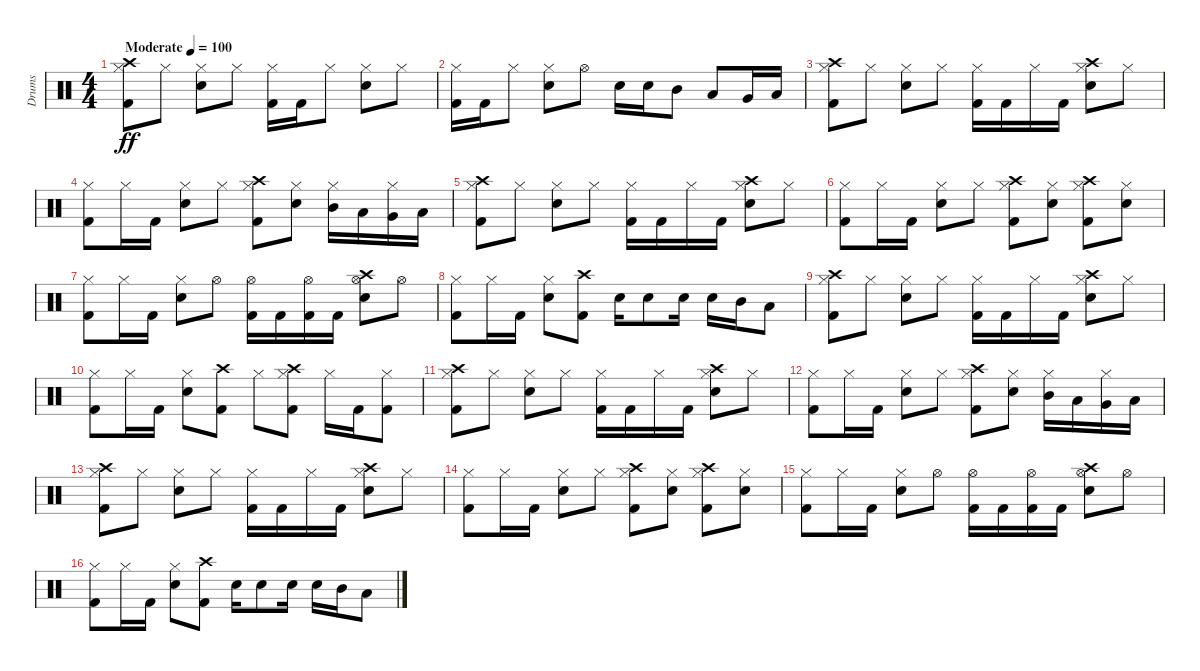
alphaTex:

\track ("Drums" "Drums") {instrument percussion}
\staff {score}
\articulation defaults
\ts (4 4)
\tempo (100 "Moderate")
\clef neutral
\ks c
("Kick (hit) 2" "Hi-Hat (closed)" "Crash high (hit)").8{dy ff} "Hi-Hat (closed)".8 ("Snare (hit) 2" "Hi-Hat (closed)").8 "Hi-Hat (closed)".8 ("Kick (hit) 2" "Hi-Hat (closed)").16 "Kick (hit) 2".16 "Hi-Hat (closed)".8 ("Snare (hit) 2" "Hi-Hat (closed)").8 "Hi-Hat (closed)".8 |
("Kick (hit) 2" "Hi-Hat (closed)").16 "Kick (hit) 2".16 "Hi-Hat (closed)".8 ("Snare (hit) 2" "Hi-Hat (closed)").8 "Hi-Hat (open)".8 "Snare (hit) 2".16 "Snare (hit) 2".16 "Mid Tom (hit)".8 "Low Tom (hit)".8 "Very Low Tom (hit)".16 "Low Floor Tom (hit)".16 |
("Kick (hit) 2" "Hi-Hat (closed)" "Crash high (hit)").8 "Hi-Hat (closed)".8 ("Snare (hit) 2" "Hi-Hat (closed)").8 "Hi-Hat (closed)".8 ("Kick (hit) 2" "Hi-Hat (closed)").16 "Kick (hit) 2".16 "Hi-Hat (closed)".16 "Kick (hit) 2".16 ("Snare (hit) 2" "Hi-Hat (closed)" "Crash high (hit)").8 "Hi-Hat (closed)".8 |
("Kick (hit) 2" "Hi-Hat (closed)").8 "Hi-Hat (closed)".16 "Kick (hit) 2".16 ("Snare (hit) 2" "Hi-Hat (closed)").8 "Hi-Hat (closed)".8 ("Kick (hit) 2" "Hi-Hat (closed)" "Crash high (hit)").8 ("Snare (hit) 2" "Hi-Hat (closed)").8 ("Hi-Hat (closed)" "Mid Tom (hit)").16 "Low Tom (hit)".16 ("Hi-Hat (closed)" "Very Low Tom (hit)").16 "Low Floor Tom (hit)".16 |
("Kick (hit) 2" "Hi-Hat (closed)" "Crash high (hit)").8 "Hi-Hat (closed)".8 ("Snare (hit) 2" "Hi-Hat (closed)").8 "Hi-Hat (closed)".8 ("Kick (hit) 2" "Hi-Hat (closed)").16 "Kick (hit) 2".16 "Hi-Hat (closed)".16 "Kick (hit) 2".16 ("Snare (hit) 2" "Hi-Hat (closed)" "Crash high (hit)").8 "Hi-Hat (closed)".8 |
("Kick (hit) 2" "Hi-Hat (closed)").8 "Hi-Hat (closed)".16 "Kick (hit) 2".16 ("Snare (hit) 2" "Hi-Hat (closed)").8 "Hi-Hat (closed)".8 ("Kick (hit) 2" "Hi-Hat (closed)" "Crash high (hit)").8 ("Snare (hit) 2" "Hi-Hat (closed)").8 ("Kick (hit) 2" "Hi-Hat (closed)" "Crash high (hit)").8 ("Snare (hit) 2" "Hi-Hat (closed)").8 |
("Kick (hit) 2" "Hi-Hat (closed)").8 "Hi-Hat (closed)".16 "Kick (hit) 2".16 ("Snare (hit) 2" "Hi-Hat (closed)").8 "Hi-Hat (open)".8 ("Kick (hit) 2" "Hi-Hat (open)").16 "Kick (hit) 2".16 ("Kick (hit) 2" "Hi-Hat (open)").16 "Kick (hit) 2".16 ("Snare (hit) 2" "Hi-Hat (open)" "Crash high (hit)").8 "Hi-Hat (open)".8 |
("Kick (hit) 2" "Hi-Hat (closed)").8 "Hi-Hat (closed)".16 "Kick (hit) 2".16 ("Snare (hit) 2" "Hi-Hat (closed)").8 ("Kick (hit) 2" "Crash high (hit)").8 "Snare (hit) 2".16 "Snare (hit) 2".8 "Snare (hit) 2".16 "Snare (hit) 2".16 "Mid Tom (hit)".16 "Low Tom (hit)".8 |
("Kick (hit) 2" "Hi-Hat (closed)" "Crash high (hit)").8 "Hi-Hat (closed)".8 ("Snare (hit) 2" "Hi-Hat (closed)").8 "Hi-Hat (closed)".8 ("Kick (hit) 2" "Hi-Hat (closed)").16 "Kick (hit) 2".16 "Hi-Hat (closed)".16 "Kick (hit) 2".16 ("Snare (hit) 2" "Hi-Hat (closed)" "Crash high (hit)").8 "Hi-Hat (closed)".8 |
("Kick (hit) 2" "Hi-Hat (closed)").8 "Hi-Hat (closed)".16 "Kick (hit) 2".16 ("Snare (hit) 2" "Hi-Hat (closed)").8 ("Kick (hit) 2" "Crash high (hit)").8 "Hi-Hat (closed)".8 ("Kick (hit) 2" "Hi-Hat (closed)" "Crash high (hit)").8 "Hi-Hat (closed)".16 "Kick (hit) 2".16 ("Kick (hit) 2" "Hi-Hat (closed)").8 |
("Kick (hit) 2" "Hi-Hat (closed)" "Crash high (hit)").8 "Hi-Hat (closed)".8 ("Snare (hit) 2" "Hi-Hat (closed)").8 "Hi-Hat (closed)".8 ("Kick (hit) 2" "Hi-Hat (closed)").16 "Kick (hit) 2".16 "Hi-Hat (closed)".16 "Kick (hit) 2".16 ("Snare (hit) 2" "Hi-Hat (closed)" "Crash high (hit)").8 "Hi-Hat (closed)".8 |
("Kick (hit) 2" "Hi-Hat (closed)").8 "Hi-Hat (closed)".16 "Kick (hit) 2".16 ("Snare (hit) 2" "Hi-Hat (closed)").8 "Hi-Hat (closed)".8 ("Kick (hit) 2" "Hi-Hat (closed)" "Crash high (hit)").8 ("Snare (hit) 2" "Hi-Hat (closed)").8 ("Hi-Hat (closed)" "Mid Tom (hit)").16 "Low Tom (hit)".16 ("Hi-Hat (closed)" "Very Low Tom (hit)").16 "Low Floor Tom (hit)".16 |
("Kick (hit) 2" "Hi-Hat (closed)" "Crash high (hit)").8 "Hi-Hat (closed)".8 ("Snare (hit) 2" "Hi-Hat (closed)").8 "Hi-Hat (closed)".8 ("Kick (hit) 2" "Hi-Hat (closed)").16 "Kick (hit) 2".16 "Hi-Hat (closed)".16 "Kick (hit) 2".16 ("Snare (hit) 2" "Hi-Hat (closed)" "Crash high (hit)").8 "Hi-Hat (closed)".8 |
("Kick (hit) 2" "Hi-Hat (closed)").8 "Hi-Hat (closed)".16 "Kick (hit) 2".16 ("Snare (hit) 2" "Hi-Hat (closed)").8 "Hi-Hat (closed)".8 ("Kick (hit) 2" "Hi-Hat (closed)" "Crash high (hit)").8 ("Snare (hit) 2" "Hi-Hat (closed)").8 ("Kick (hit) 2" "Hi-Hat (closed)" "Crash high (hit)").8 ("Snare (hit) 2" "Hi-Hat (closed)").8 |
("Kick (hit) 2" "Hi-Hat (closed)").8 "Hi-Hat (closed)".16 "Kick (hit) 2".16 ("Snare (hit) 2" "Hi-Hat (closed)").8 "Hi-Hat (open)".8 ("Kick (hit) 2" "Hi-Hat (open)").16 "Kick (hit) 2".16 ("Kick (hit) 2" "Hi-Hat (open)").16 "Kick (hit) 2".16 ("Snare (hit) 2" "Hi-Hat (open)" "Crash high (hit)").8 "Hi-Hat (open)".8 |
("Kick (hit) 2" "Hi-Hat (closed)").8 "Hi-Hat (closed)".16 "Kick (hit) 2".16 ("Snare (hit) 2" "Hi-Hat (closed)").8 ("Kick (hit) 2" "Crash high (hit)").8 "Snare (hit) 2".16 "Snare (hit) 2".8 "Snare (hit) 2".16 "Snare (hit) 2".16 "Mid Tom (hit)".16 "Low Tom (hit)".8
